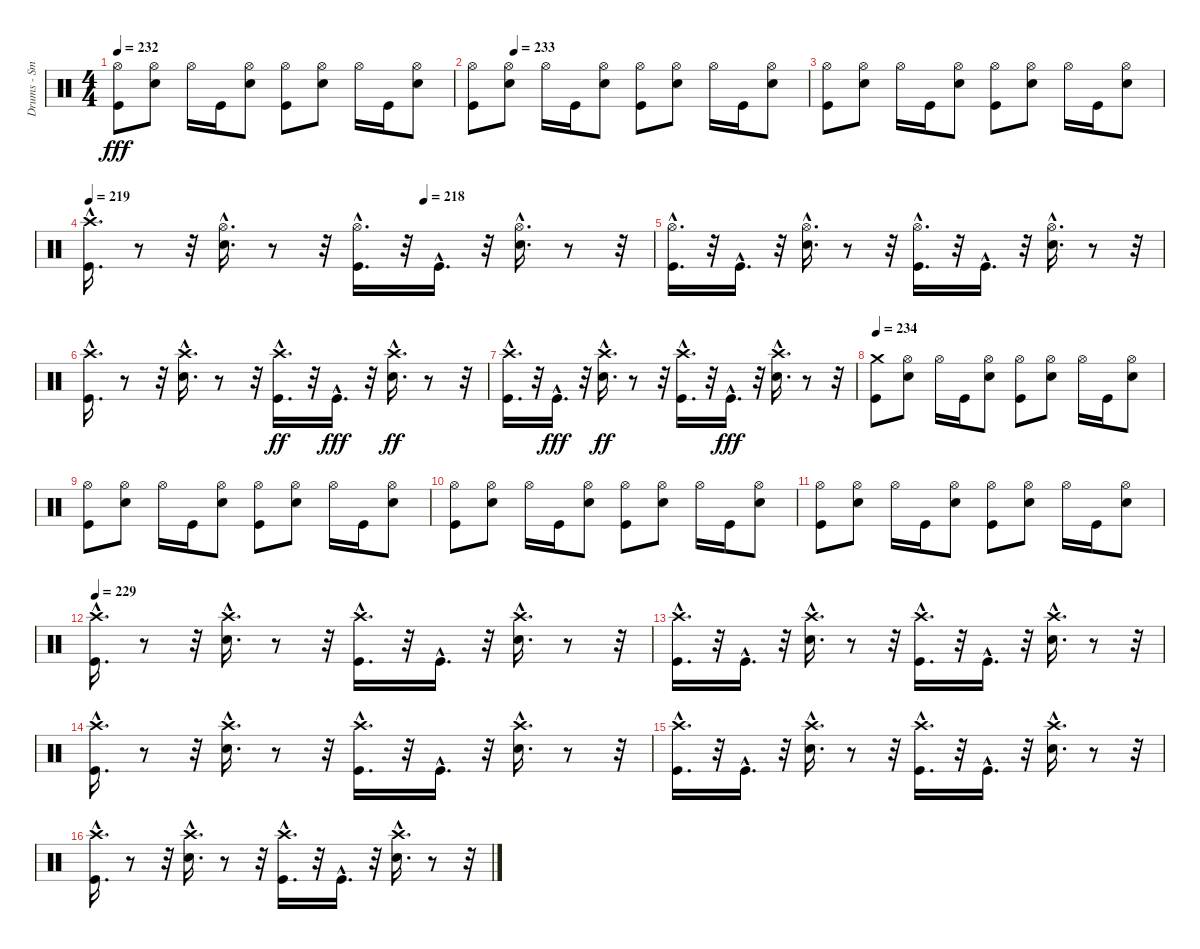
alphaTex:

\track ("Drums - Smelly" "Drums - Sm") {instrument percussion}
\staff {score}
\articulation defaults
\ts (4 4)
\tempo 232
\clef neutral
\ks c
("Kick (hit)" "Hi-Hat (open)").8{dy fff} ("Electric Snare (hit)" "Hi-Hat (open)").8 "Hi-Hat (open)".16 "Kick (hit)".16 ("Electric Snare (hit)" "Hi-Hat (open)").8 ("Hi-Hat (open)" "Kick (hit)").8 ("Electric Snare (hit)" "Hi-Hat (open)").8 "Hi-Hat (open)".16 "Kick (hit)".16 ("Hi-Hat (open)" "Electric Snare (hit)").8 |
\tempo (233 0.125)
("Kick (hit)" "Hi-Hat (open)").8 ("Hi-Hat (open)" "Electric Snare (hit)").8 "Hi-Hat (open)".16 "Kick (hit)".16 ("Hi-Hat (open)" "Electric Snare (hit)").8 ("Hi-Hat (open)" "Kick (hit)").8 ("Electric Snare (hit)" "Hi-Hat (open)").8 "Hi-Hat (open)".16 "Kick (hit)".16 ("Hi-Hat (open)" "Electric Snare (hit)").8 |
("Hi-Hat (open)" "Kick (hit)").8 ("Electric Snare (hit)" "Hi-Hat (open)").8 "Hi-Hat (open)".16 "Kick (hit)".16 ("Hi-Hat (open)" "Electric Snare (hit)").8 ("Hi-Hat (open)" "Kick (hit)").8 ("Hi-Hat (open)" "Electric Snare (hit)").8 "Hi-Hat (open)".16 "Kick (hit)".16 ("Electric Snare (hit)" "Hi-Hat (open)").8 |
\tempo 219
\tempo (218 0.59375)
("Kick (hit)"{hac} "Crash high (hit)"{hac}).16{d} r.8 r.32 ("Hi-Hat (open)"{hac} "Electric Snare (hit)"{hac}).16{d} r.8 r.32 ("Kick (hit)"{hac} "Hi-Hat (open)"{hac}).16{d} r.32 "Kick (hit)"{hac}.16{d} r.32 ("Electric Snare (hit)"{hac} "Hi-Hat (open)"{hac}).16{d} r.8 r.32 |
("Kick (hit)"{hac} "Hi-Hat (open)"{hac}).16{d} r.32 "Kick (hit)"{hac}.16{d} r.32 ("Hi-Hat (open)"{hac} "Electric Snare (hit)"{hac}).16{d} r.8 r.32 ("Kick (hit)"{hac} "Hi-Hat (open)"{hac}).16{d} r.32 "Kick (hit)"{hac}.16{d} r.32 ("Electric Snare (hit)"{hac} "Hi-Hat (open)"{hac}).16{d} r.8 r.32 |
("Crash high (hit)"{hac} "Kick (hit)"{hac}).16{d} r.8 r.32 ("Crash high (hit)"{hac} "Electric Snare (hit)"{hac}).16{d} r.8 r.32 ("Kick (hit)"{hac} "Crash high (hit)"{hac}).16{d dy ff} r.32 "Kick (hit)"{hac}.16{d dy fff} r.32 ("Electric Snare (hit)"{hac} "Crash high (hit)"{hac}).16{d dy ff} r.8 r.32 |
("Kick (hit)"{hac} "Crash high (hit)"{hac}).16{d} r.32 "Kick (hit)"{hac}.16{d dy fff} r.32 ("Electric Snare (hit)"{hac} "Crash high (hit)"{hac}).16{d dy ff} r.8 r.32 ("Kick (hit)"{hac} "Crash high (hit)"{hac}).16{d} r.32 "Kick (hit)"{hac}.16{d dy fff} r.32 ("Electric Snare (hit)"{hac} "Crash high (hit)"{hac}).16{d} r.8 r.32 |
\tempo 234
("Kick (hit)" "Crash medium (hit)").8 ("Hi-Hat (open)" "Electric Snare (hit)").8 "Hi-Hat (open)".16 "Kick (hit)".16 ("Hi-Hat (open)" "Electric Snare (hit)").8 ("Hi-Hat (open)" "Kick (hit)").8 ("Electric Snare (hit)" "Hi-Hat (open)").8 "Hi-Hat (open)".16 "Kick (hit)".16 ("Hi-Hat (open)" "Electric Snare (hit)").8 |
("Hi-Hat (open)" "Kick (hit)").8 ("Electric Snare (hit)" "Hi-Hat (open)").8 "Hi-Hat (open)".16 "Kick (hit)".16 ("Hi-Hat (open)" "Electric Snare (hit)").8 ("Hi-Hat (open)" "Kick (hit)").8 ("Hi-Hat (open)" "Electric Snare (hit)").8 "Hi-Hat (open)".16 "Kick (hit)".16 ("Electric Snare (hit)" "Hi-Hat (open)").8 |
("Kick (hit)" "Hi-Hat (open)").8 ("Hi-Hat (open)" "Electric Snare (hit)").8 "Hi-Hat (open)".16 "Kick (hit)".16 ("Hi-Hat (open)" "Electric Snare (hit)").8 ("Kick (hit)" "Hi-Hat (open)").8 ("Hi-Hat (open)" "Electric Snare (hit)").8 "Hi-Hat (open)".16 "Kick (hit)".16 ("Hi-Hat (open)" "Electric Snare (hit)").8 |
("Hi-Hat (open)" "Kick (hit)").8 ("Hi-Hat (open)" "Electric Snare (hit)").8 "Hi-Hat (open)".16 "Kick (hit)".16 ("Electric Snare (hit)" "Hi-Hat (open)").8 ("Kick (hit)" "Hi-Hat (open)").8 ("Electric Snare (hit)" "Hi-Hat (open)").8 "Hi-Hat (open)".16 "Kick (hit)".16 ("Electric Snare (hit)" "Hi-Hat (open)").8 |
\tempo 229
("Crash high (hit)"{hac} "Kick (hit)"{hac}).16{d} r.8 r.32 ("Electric Snare (hit)"{hac} "Crash high (hit)"{hac}).16{d} r.8 r.32 ("Crash high (hit)"{hac} "Kick (hit)"{hac}).16{d} r.32 "Kick (hit)"{hac}.16{d} r.32 ("Electric Snare (hit)"{hac} "Crash high (hit)"{hac}).16{d} r.8 r.32 |
("Crash high (hit)"{hac} "Kick (hit)"{hac}).16{d} r.32 "Kick (hit)"{hac}.16{d} r.32 ("Crash high (hit)"{hac} "Electric Snare (hit)"{hac}).16{d} r.8 r.32 ("Kick (hit)"{hac} "Crash high (hit)"{hac}).16{d} r.32 "Kick (hit)"{hac}.16{d} r.32 ("Electric Snare (hit)"{hac} "Crash high (hit)"{hac}).16{d} r.8 r.32 |
("Crash high (hit)"{hac} "Kick (hit)"{hac}).16{d} r.8 r.32 ("Electric Snare (hit)"{hac} "Crash high (hit)"{hac}).16{d} r.8 r.32 ("Kick (hit)"{hac} "Crash high (hit)"{hac}).16{d} r.32 "Kick (hit)"{hac}.16{d} r.32 ("Electric Snare (hit)"{hac} "Crash high (hit)"{hac}).16{d} r.8 r.32 |
("Crash high (hit)"{hac} "Kick (hit)"{hac}).16{d} r.32 "Kick (hit)"{hac}.16{d} r.32 ("Electric Snare (hit)"{hac} "Crash high (hit)"{hac}).16{d} r.8 r.32 ("Kick (hit)"{hac} "Crash high (hit)"{hac}).16{d} r.32 "Kick (hit)"{hac}.16{d} r.32 ("Electric Snare (hit)"{hac} "Crash high (hit)"{hac}).16{d} r.8 r.32 |
("Crash high (hit)"{hac} "Kick (hit)"{hac}).16{d} r.8 r.32 ("Crash high (hit)"{hac} "Electric Snare (hit)"{hac}).16{d} r.8 r.32 ("Crash high (hit)"{hac} "Kick (hit)"{hac}).16{d} r.32 "Kick (hit)"{hac}.16{d} r.32 ("Crash high (hit)"{hac} "Electric Snare (hit)"{hac}).16{d} r.8 r.32
